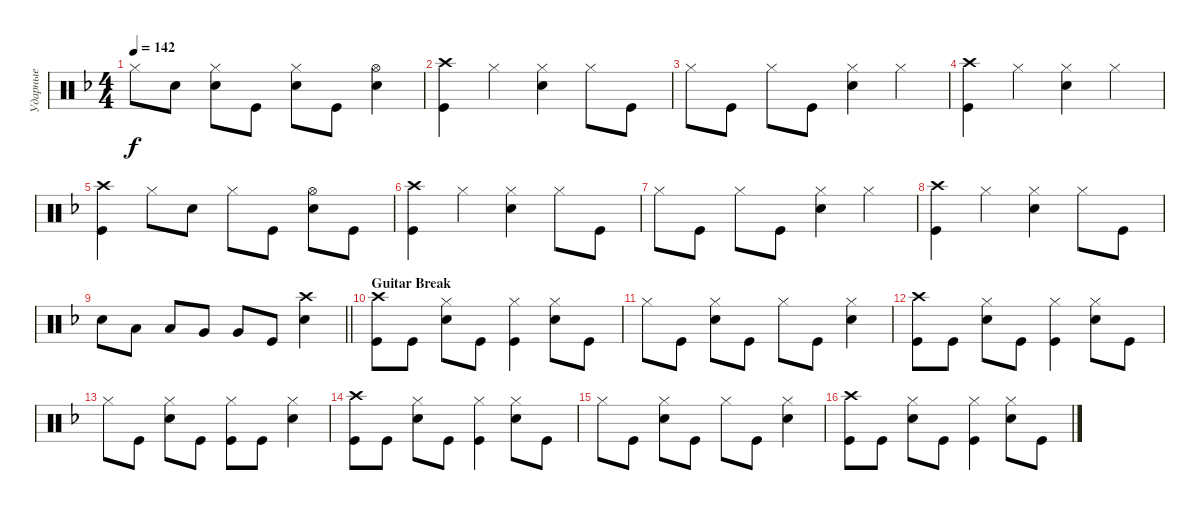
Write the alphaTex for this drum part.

\track ("Ударные" "Ударные") {instrument percussion}
\staff {score}
\articulation defaults
\ts (4 4)
\tempo 142
\clef neutral
\ks dminor "Hi-Hat (closed)".8{dy f} "Snare (hit) 2".8
("Snare (hit) 2" "Hi-Hat (closed)").8 "Kick (hit)".8 ("Snare (hit) 2" "Hi-Hat (closed)").8 "Kick (hit)".8 ("Snare (hit) 2" "Hi-Hat (open)").4 |
("Kick (hit)" "Crash high (hit)").4 "Hi-Hat (closed)".4 ("Hi-Hat (closed)" "Snare (hit) 2").4 "Hi-Hat (closed)".8 "Kick (hit)".8 |
"Hi-Hat (closed)".8 "Kick (hit)".8 "Hi-Hat (closed)".8 "Kick (hit)".8 ("Snare (hit) 2" "Hi-Hat (closed)").4 "Hi-Hat (closed)".4 |
("Kick (hit)" "Crash high (hit)").4 "Hi-Hat (closed)".4 ("Hi-Hat (closed)" "Snare (hit) 2").4 "Hi-Hat (closed)".4 |
("Kick (hit)" "Crash high (hit)").4 "Hi-Hat (closed)".8 "Snare (hit) 2".8 "Hi-Hat (closed)".8 "Kick (hit)".8 ("Snare (hit) 2" "Hi-Hat (open)").8 "Kick (hit)".8 |
("Kick (hit)" "Crash high (hit)").4 "Hi-Hat (closed)".4 ("Hi-Hat (closed)" "Snare (hit) 2").4 "Hi-Hat (closed)".8 "Kick (hit)".8 |
"Hi-Hat (closed)".8 "Kick (hit)".8 "Hi-Hat (closed)".8 "Kick (hit)".8 ("Snare (hit) 2" "Hi-Hat (closed)").4 "Hi-Hat (closed)".4 |
("Kick (hit)" "Crash high (hit)").4 "Hi-Hat (closed)".4 ("Hi-Hat (closed)" "Snare (hit) 2").4 "Hi-Hat (closed)".8 "Kick (hit)".8 |
\barLineRight lightlight "Snare (hit) 2".8 "Low Tom (hit)".8 "Low Tom (hit)".8 "Very Low Tom (hit)".8 "Very Low Tom (hit)".8 "Kick (hit)".8
("Snare (hit) 2" "Crash high (hit)").4 |
\section ("" "Guitar Break")
("Kick (hit)" "Crash high (hit)").8 "Kick (hit)".8 ("Snare (hit) 2" "Hi-Hat (closed)").8 "Kick (hit)".8 ("Kick (hit)" "Hi-Hat (closed)").4 ("Snare (hit) 2" "Hi-Hat (closed)").8 "Kick (hit)".8 |
"Hi-Hat (closed)".8 "Kick (hit)".8 ("Snare (hit) 2" "Hi-Hat (closed)").8 "Kick (hit)".8 "Hi-Hat (closed)".8 "Kick (hit)".8 ("Snare (hit) 2" "Hi-Hat (closed)").4 |
("Kick (hit)" "Crash high (hit)").8 "Kick (hit)".8 ("Snare (hit) 2" "Hi-Hat (closed)").8 "Kick (hit)".8 ("Kick (hit)" "Hi-Hat (closed)").4 ("Snare (hit) 2" "Hi-Hat (closed)").8 "Kick (hit)".8 |
"Hi-Hat (closed)".8 "Kick (hit)".8 ("Snare (hit) 2" "Hi-Hat (closed)").8 "Kick (hit)".8 ("Kick (hit)" "Hi-Hat (closed)").8 "Kick (hit)".8 ("Snare (hit) 2" "Hi-Hat (closed)").4 |
("Kick (hit)" "Crash high (hit)").8 "Kick (hit)".8 ("Snare (hit) 2" "Hi-Hat (closed)").8 "Kick (hit)".8 ("Kick (hit)" "Hi-Hat (closed)").4 ("Snare (hit) 2" "Hi-Hat (closed)").8 "Kick (hit)".8 |
"Hi-Hat (closed)".8 "Kick (hit)".8 ("Snare (hit) 2" "Hi-Hat (closed)").8 "Kick (hit)".8 "Hi-Hat (closed)".8 "Kick (hit)".8 ("Snare (hit) 2" "Hi-Hat (closed)").4 |
("Kick (hit)" "Crash high (hit)").8 "Kick (hit)".8 ("Snare (hit) 2" "Hi-Hat (closed)").8 "Kick (hit)".8 ("Kick (hit)" "Hi-Hat (closed)").4 ("Snare (hit) 2" "Hi-Hat (closed)").8 "Kick (hit)".8
